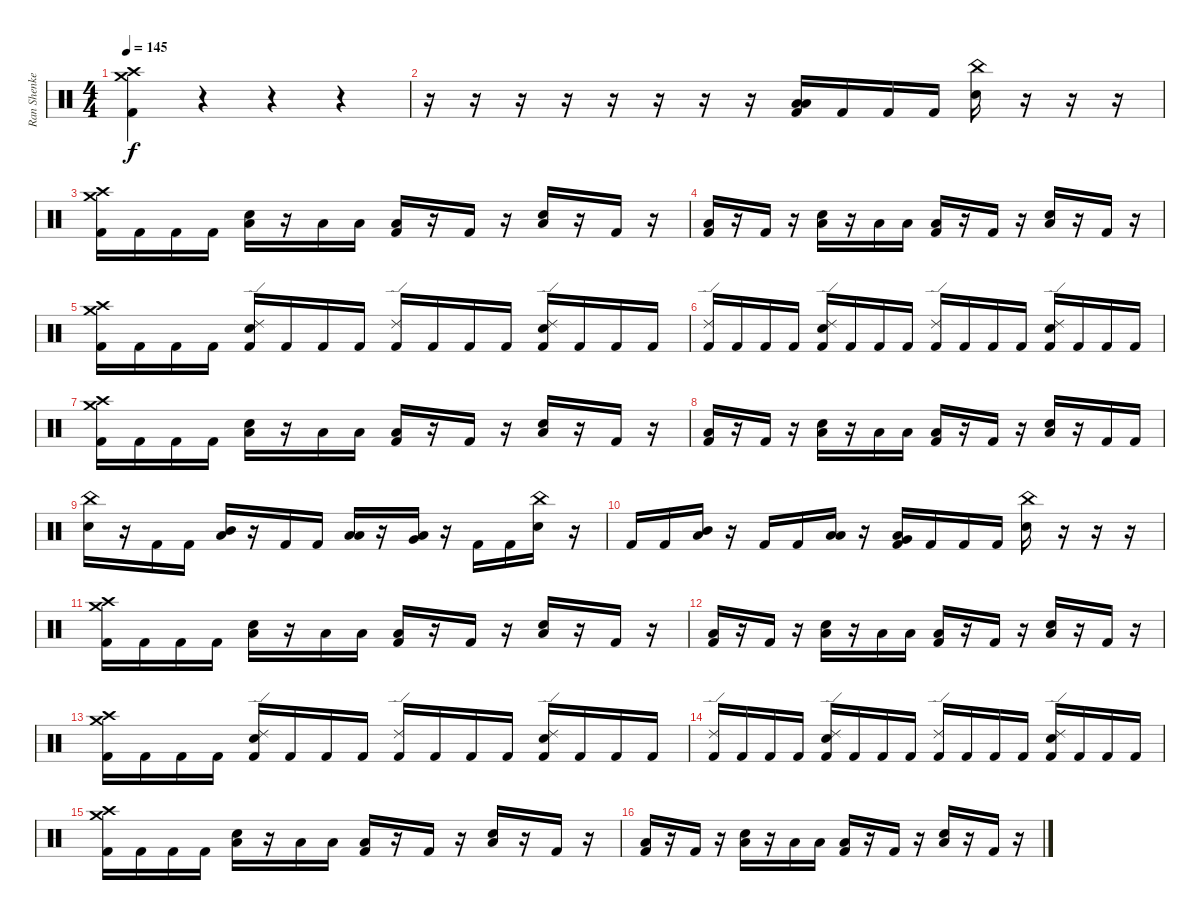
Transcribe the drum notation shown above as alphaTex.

\track ("Ran Shenkerman" "Ran Shenke") {instrument percussion}
\staff {score}
\articulation defaults
\ts (4 4)
\tempo 145
\clef neutral
\ks c
("Crash high (hit)" "Crash medium (hit)" "Kick (hit) 2").4{dy f} r.4 r.4 r.4 |
r.16 r.16 r.16 r.16 r.16 r.16 r.16 r.16 ("Low Tom (hit)" "Low Floor Tom (hit)" "Kick (hit) 2").16 "Kick (hit) 2".16 "Kick (hit) 2".16 "Kick (hit) 2".16 ("China (hit)" "Snare (hit) 2").16 r.16 r.16 r.16 |
("Crash high (hit)" "Crash medium (hit)" "Kick (hit) 2").16 "Kick (hit) 2".16 "Kick (hit) 2".16 "Kick (hit) 2".16 ("Snare (hit) 2" "Low Floor Tom (hit)").16 r.16 "Low Floor Tom (hit)".16 "Low Tom (hit)".16 ("Low Floor Tom (hit)" "Kick (hit) 2").16 r.16 "Kick (hit) 2".16 r.16 ("Snare (hit) 2" "Low Floor Tom (hit)").16 r.16 "Kick (hit) 2".16 r.16 |
("Low Floor Tom (hit)" "Kick (hit) 2").16 r.16 "Kick (hit) 2".16 r.16 ("Snare (hit) 2" "Low Floor Tom (hit)").16 r.16 "Low Floor Tom (hit)".16 "Low Tom (hit)".16 ("Low Floor Tom (hit)" "Kick (hit) 2").16 r.16 "Kick (hit) 2".16 r.16 ("Snare (hit) 2" "Low Floor Tom (hit)").16 r.16 "Kick (hit) 2".16 r.16 |
("Crash medium (hit)" "Crash high (hit)" "Kick (hit) 2").16 "Kick (hit) 2".16 "Kick (hit) 2".16 "Kick (hit) 2".16 ("Ride (edge) 2" "Snare (hit) 2" "Kick (hit) 2").16 "Kick (hit) 2".16 "Kick (hit) 2".16 "Kick (hit) 2".16 ("Ride (edge) 2" "Kick (hit) 2").16 "Kick (hit) 2".16 "Kick (hit) 2".16 "Kick (hit) 2".16 ("Ride (edge) 2" "Snare (hit) 2" "Kick (hit) 2").16 "Kick (hit) 2".16 "Kick (hit) 2".16 "Kick (hit) 2".16 |
("Ride (edge) 2" "Kick (hit) 2").16 "Kick (hit) 2".16 "Kick (hit) 2".16 "Kick (hit) 2".16 ("Ride (edge) 2" "Snare (hit) 2" "Kick (hit) 2").16 "Kick (hit) 2".16 "Kick (hit) 2".16 "Kick (hit) 2".16 ("Ride (edge) 2" "Kick (hit) 2").16 "Kick (hit) 2".16 "Kick (hit) 2".16 "Kick (hit) 2".16 ("Ride (edge) 2" "Snare (hit) 2" "Kick (hit) 2").16 "Kick (hit) 2".16 "Kick (hit) 2".16 "Kick (hit) 2".16 |
("Crash high (hit)" "Crash medium (hit)" "Kick (hit) 2").16 "Kick (hit) 2".16 "Kick (hit) 2".16 "Kick (hit) 2".16 ("Snare (hit) 2" "Low Floor Tom (hit)").16 r.16 "Low Floor Tom (hit)".16 "Low Tom (hit)".16 ("Low Floor Tom (hit)" "Kick (hit) 2").16 r.16 "Kick (hit) 2".16 r.16 ("Snare (hit) 2" "Low Floor Tom (hit)").16 r.16 "Kick (hit) 2".16 r.16 |
("Low Floor Tom (hit)" "Kick (hit) 2").16 r.16 "Kick (hit) 2".16 r.16 ("Snare (hit) 2" "Low Floor Tom (hit)").16 r.16 "Low Floor Tom (hit)".16 "Low Tom (hit)".16 ("Low Floor Tom (hit)" "Kick (hit) 2").16 r.16 "Kick (hit) 2".16 r.16 ("Snare (hit) 2" "Low Floor Tom (hit)").16 r.16 "Kick (hit) 2".16 "Kick (hit) 2".16 |
("China (hit)" "Snare (hit) 2").16 r.16 "Kick (hit) 2".16 "Kick (hit) 2".16 ("Mid Tom (hit)" "Low Floor Tom (hit)").16 r.16 "Kick (hit) 2".16 "Kick (hit) 2".16 ("Low Tom (hit)" "Low Floor Tom (hit)").16 r.16 ("Very Low Tom (hit)" "Low Floor Tom (hit)").16 r.16 "Kick (hit) 2".16 "Kick (hit) 2".16 ("China (hit)" "Snare (hit) 2").16 r.16 |
"Kick (hit) 2".16 "Kick (hit) 2".16 ("Mid Tom (hit)" "Low Floor Tom (hit)").16 r.16 "Kick (hit) 2".16 "Kick (hit) 2".16 ("Low Tom (hit)" "Low Floor Tom (hit)").16 r.16 ("Very Low Tom (hit)" "Low Floor Tom (hit)" "Kick (hit) 2").16 "Kick (hit) 2".16 "Kick (hit) 2".16 "Kick (hit) 2".16 ("China (hit)" "Snare (hit) 2").16 r.16 r.16 r.16 |
("Crash high (hit)" "Crash medium (hit)" "Kick (hit) 2").16 "Kick (hit) 2".16 "Kick (hit) 2".16 "Kick (hit) 2".16 ("Snare (hit) 2" "Low Floor Tom (hit)").16 r.16 "Low Floor Tom (hit)".16 "Low Tom (hit)".16 ("Low Floor Tom (hit)" "Kick (hit) 2").16 r.16 "Kick (hit) 2".16 r.16 ("Snare (hit) 2" "Low Floor Tom (hit)").16 r.16 "Kick (hit) 2".16 r.16 |
("Low Floor Tom (hit)" "Kick (hit) 2").16 r.16 "Kick (hit) 2".16 r.16 ("Snare (hit) 2" "Low Floor Tom (hit)").16 r.16 "Low Floor Tom (hit)".16 "Low Tom (hit)".16 ("Low Floor Tom (hit)" "Kick (hit) 2").16 r.16 "Kick (hit) 2".16 r.16 ("Snare (hit) 2" "Low Floor Tom (hit)").16 r.16 "Kick (hit) 2".16 r.16 |
("Crash medium (hit)" "Crash high (hit)" "Kick (hit) 2").16 "Kick (hit) 2".16 "Kick (hit) 2".16 "Kick (hit) 2".16 ("Ride (edge) 2" "Snare (hit) 2" "Kick (hit) 2").16 "Kick (hit) 2".16 "Kick (hit) 2".16 "Kick (hit) 2".16 ("Ride (edge) 2" "Kick (hit) 2").16 "Kick (hit) 2".16 "Kick (hit) 2".16 "Kick (hit) 2".16 ("Ride (edge) 2" "Snare (hit) 2" "Kick (hit) 2").16 "Kick (hit) 2".16 "Kick (hit) 2".16 "Kick (hit) 2".16 |
("Ride (edge) 2" "Kick (hit) 2").16 "Kick (hit) 2".16 "Kick (hit) 2".16 "Kick (hit) 2".16 ("Ride (edge) 2" "Snare (hit) 2" "Kick (hit) 2").16 "Kick (hit) 2".16 "Kick (hit) 2".16 "Kick (hit) 2".16 ("Ride (edge) 2" "Kick (hit) 2").16 "Kick (hit) 2".16 "Kick (hit) 2".16 "Kick (hit) 2".16 ("Ride (edge) 2" "Snare (hit) 2" "Kick (hit) 2").16 "Kick (hit) 2".16 "Kick (hit) 2".16 "Kick (hit) 2".16 |
("Crash high (hit)" "Crash medium (hit)" "Kick (hit) 2").16 "Kick (hit) 2".16 "Kick (hit) 2".16 "Kick (hit) 2".16 ("Snare (hit) 2" "Low Floor Tom (hit)").16 r.16 "Low Floor Tom (hit)".16 "Low Tom (hit)".16 ("Low Floor Tom (hit)" "Kick (hit) 2").16 r.16 "Kick (hit) 2".16 r.16 ("Snare (hit) 2" "Low Floor Tom (hit)").16 r.16 "Kick (hit) 2".16 r.16 |
("Low Floor Tom (hit)" "Kick (hit) 2").16 r.16 "Kick (hit) 2".16 r.16 ("Snare (hit) 2" "Low Floor Tom (hit)").16 r.16 "Low Floor Tom (hit)".16 "Low Tom (hit)".16 ("Low Floor Tom (hit)" "Kick (hit) 2").16 r.16 "Kick (hit) 2".16 r.16 ("Snare (hit) 2" "Low Floor Tom (hit)").16 r.16 "Kick (hit) 2".16 r.16
